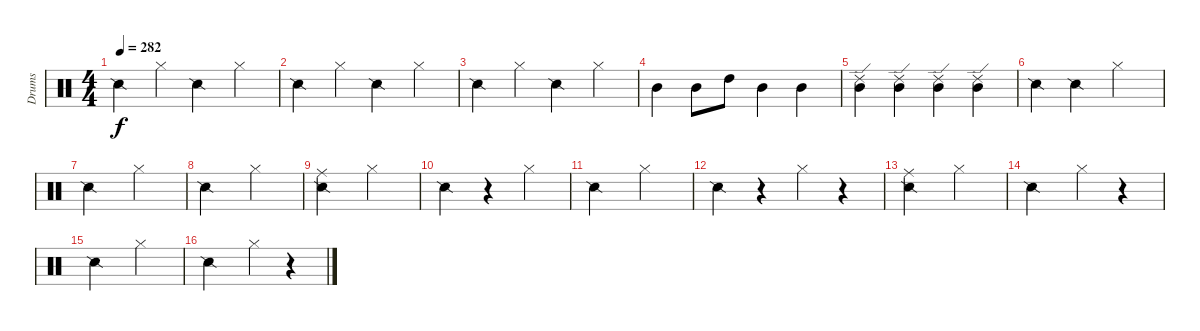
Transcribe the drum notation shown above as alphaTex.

\track ("Drums" "Drums") {instrument percussion}
\staff {score}
\articulation defaults
\ts (4 4)
\tempo 282
\clef neutral
\ks c "Snare (side stick) 2".4{dy f} "Hi-Hat (closed)".4 "Snare (side stick) 2".4 "Hi-Hat (closed)".4
|
"Snare (side stick) 2".4 "Hi-Hat (closed)".4 "Snare (side stick) 2".4 "Hi-Hat (closed)".4 |
"Snare (side stick) 2".4 "Hi-Hat (closed)".4 "Snare (side stick) 2".4 "Hi-Hat (closed)".4 |
"Mid Tom (hit)".4 "Mid Tom (hit)".8 "High Tom (hit)".8 "Mid Tom (hit)".4 "Mid Tom (hit)".4 |
("Ride (edge) 2" "Mid Tom (hit)").4 ("Ride (edge) 2" "Mid Tom (hit)").4 ("Ride (edge) 2" "Mid Tom (hit)").4 ("Ride (edge) 2" "Mid Tom (hit)").4 |
"Snare (side stick) 2".4 "Snare (side stick) 2".4 "Hi-Hat (closed)".2 |
"Snare (side stick) 2".2 "Hi-Hat (closed)".2 |
"Snare (side stick) 2".2 "Hi-Hat (closed)".2 |
("Ride (middle)" "Snare (side stick) 2").2 "Hi-Hat (closed)".2 |
"Snare (side stick) 2".4 r.4 "Hi-Hat (closed)".4 |
"Snare (side stick) 2".2 "Hi-Hat (closed)".2 |
"Snare (side stick) 2".4 r.4 "Hi-Hat (closed)".4 r.4 |
("Ride (middle)" "Snare (side stick) 2").2 "Hi-Hat (closed)".2 |
"Snare (side stick) 2".2 "Hi-Hat (closed)".4 r.4 |
"Snare (side stick) 2".2 "Hi-Hat (closed)".2 |
"Snare (side stick) 2".2 "Hi-Hat (closed)".4 r.4
